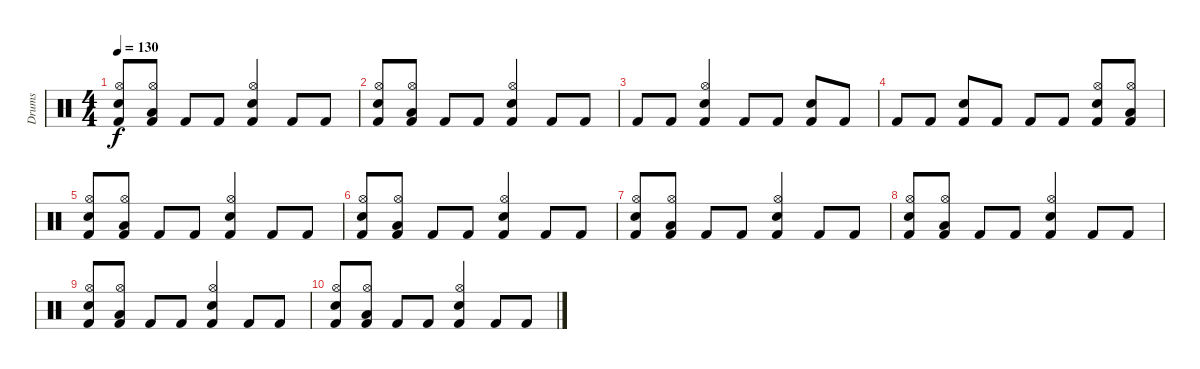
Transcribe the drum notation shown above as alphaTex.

\track ("Drums" "Drums") {instrument percussion}
\staff {score}
\articulation defaults
\ts (4 4)
\tempo 130
\clef neutral
\ks c
("Kick (hit) 2" "Hi-Hat (open)" "Electric Snare (hit)").8{dy f} ("Kick (hit) 2" "Hi-Hat (open)" "Low Floor Tom (hit)").8 "Kick (hit) 2".8 "Kick (hit) 2".8 ("Kick (hit) 2" "Snare (hit) 2" "Hi-Hat (open)").4 "Kick (hit) 2".8 "Kick (hit) 2".8 |
("Kick (hit) 2" "Hi-Hat (open)" "Electric Snare (hit)").8 ("Kick (hit) 2" "Hi-Hat (open)" "Low Floor Tom (hit)").8 "Kick (hit) 2".8 "Kick (hit) 2".8 ("Kick (hit) 2" "Snare (hit) 2" "Hi-Hat (open)").4 "Kick (hit) 2".8 "Kick (hit) 2".8 |
"Kick (hit) 2".8 "Kick (hit) 2".8 ("Kick (hit) 2" "Snare (hit) 2" "Hi-Hat (open)").4 "Kick (hit) 2".8 "Kick (hit) 2".8 ("Kick (hit) 2" "Snare (hit) 2").8 "Kick (hit) 2".8 |
"Kick (hit) 2".8 "Kick (hit) 2".8 ("Kick (hit) 2" "Snare (hit) 2").8 "Kick (hit) 2".8 "Kick (hit) 2".8 "Kick (hit) 2".8 ("Kick (hit) 2" "Hi-Hat (open)" "Electric Snare (hit)").8 ("Kick (hit) 2" "Hi-Hat (open)" "Low Floor Tom (hit)").8 |
("Kick (hit) 2" "Hi-Hat (open)" "Electric Snare (hit)").8 ("Kick (hit) 2" "Hi-Hat (open)" "Low Floor Tom (hit)").8 "Kick (hit) 2".8 "Kick (hit) 2".8 ("Kick (hit) 2" "Snare (hit) 2" "Hi-Hat (open)").4 "Kick (hit) 2".8 "Kick (hit) 2".8 |
("Kick (hit) 2" "Hi-Hat (open)" "Electric Snare (hit)").8 ("Kick (hit) 2" "Hi-Hat (open)" "Low Floor Tom (hit)").8 "Kick (hit) 2".8 "Kick (hit) 2".8 ("Kick (hit) 2" "Snare (hit) 2" "Hi-Hat (open)").4 "Kick (hit) 2".8 "Kick (hit) 2".8 |
("Kick (hit) 2" "Hi-Hat (open)" "Electric Snare (hit)").8 ("Kick (hit) 2" "Hi-Hat (open)" "Low Floor Tom (hit)").8 "Kick (hit) 2".8 "Kick (hit) 2".8 ("Kick (hit) 2" "Snare (hit) 2" "Hi-Hat (open)").4 "Kick (hit) 2".8 "Kick (hit) 2".8 |
("Kick (hit) 2" "Hi-Hat (open)" "Electric Snare (hit)").8 ("Kick (hit) 2" "Hi-Hat (open)" "Low Floor Tom (hit)").8 "Kick (hit) 2".8 "Kick (hit) 2".8 ("Kick (hit) 2" "Snare (hit) 2" "Hi-Hat (open)").4 "Kick (hit) 2".8 "Kick (hit) 2".8 |
("Kick (hit) 2" "Hi-Hat (open)" "Electric Snare (hit)").8 ("Kick (hit) 2" "Hi-Hat (open)" "Low Floor Tom (hit)").8 "Kick (hit) 2".8 "Kick (hit) 2".8 ("Kick (hit) 2" "Snare (hit) 2" "Hi-Hat (open)").4 "Kick (hit) 2".8 "Kick (hit) 2".8 |
("Kick (hit) 2" "Hi-Hat (open)" "Electric Snare (hit)").8 ("Kick (hit) 2" "Hi-Hat (open)" "Low Floor Tom (hit)").8 "Kick (hit) 2".8 "Kick (hit) 2".8 ("Kick (hit) 2" "Snare (hit) 2" "Hi-Hat (open)").4 "Kick (hit) 2".8 "Kick (hit) 2".8
